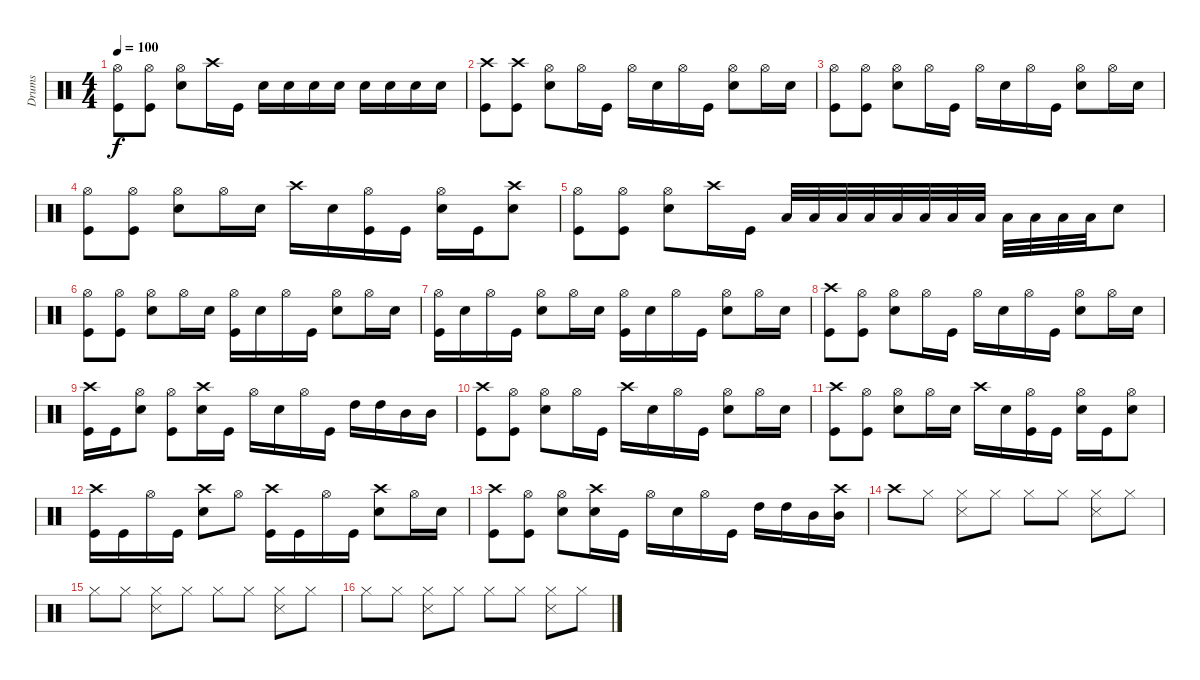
\track ("Drums" "Drums") {instrument percussion}
\staff {score}
\articulation defaults
\ts (4 4)
\tempo 100
\clef neutral
\ks c
("Hi-Hat (open)" "Kick (hit)").8{dy f} ("Hi-Hat (open)" "Kick (hit)").8 ("Hi-Hat (open)" "Snare (hit) 2").8 "Crash high (hit)".16 "Kick (hit)".16 "Snare (hit) 2".16 "Snare (hit) 2".16 "Snare (hit) 2".16 "Snare (hit) 2".16 "Snare (hit) 2".16 "Snare (hit) 2".16 "Snare (hit) 2".16 "Snare (hit) 2".16 |
("Crash high (hit)" "Kick (hit)").8 ("Crash high (hit)" "Kick (hit)").8 ("Hi-Hat (open)" "Snare (hit) 2").8 "Hi-Hat (open)".16 "Kick (hit)".16 "Hi-Hat (open)".16 "Snare (hit) 2".16 "Hi-Hat (open)".16 "Kick (hit)".16 ("Hi-Hat (open)" "Snare (hit) 2").8 "Hi-Hat (open)".16 "Snare (hit) 2".16 |
("Hi-Hat (open)" "Kick (hit)").8 ("Hi-Hat (open)" "Kick (hit)").8 ("Hi-Hat (open)" "Snare (hit) 2").8 "Hi-Hat (open)".16 "Kick (hit)".16 "Hi-Hat (open)".16 "Snare (hit) 2".16 "Hi-Hat (open)".16 "Kick (hit)".16 ("Hi-Hat (open)" "Snare (hit) 2").8 "Hi-Hat (open)".16 "Snare (hit) 2".16 |
("Hi-Hat (open)" "Kick (hit)").8 ("Hi-Hat (open)" "Kick (hit)").8 ("Hi-Hat (open)" "Snare (hit) 2").8 "Hi-Hat (open)".16 "Snare (hit) 2".16 "Crash high (hit)".16 "Snare (hit) 2".16 ("Hi-Hat (open)" "Kick (hit)").16 "Kick (hit)".16 ("Hi-Hat (open)" "Snare (hit) 2").16 "Kick (hit)".16 ("Crash high (hit)" "Snare (hit) 2").8 |
("Hi-Hat (open)" "Kick (hit)").8 ("Hi-Hat (open)" "Kick (hit)").8 ("Hi-Hat (open)" "Snare (hit) 2").8 "Crash high (hit)".16 "Kick (hit)".16 "Low Floor Tom (hit)".32 "Low Floor Tom (hit)".32 "Low Floor Tom (hit)".32 "Low Floor Tom (hit)".32 "Low Floor Tom (hit)".32 "Low Floor Tom (hit)".32 "Low Floor Tom (hit)".32 "Low Floor Tom (hit)".32 "Low Floor Tom (hit)".32 "Low Floor Tom (hit)".32 "Low Floor Tom (hit)".32 "Low Floor Tom (hit)".32 "Snare (hit) 2".8 |
("Hi-Hat (open)" "Kick (hit)").8 ("Hi-Hat (open)" "Kick (hit)").8 ("Hi-Hat (open)" "Snare (hit) 2").8 "Hi-Hat (open)".16 "Snare (hit) 2".16 ("Hi-Hat (open)" "Kick (hit)").16 "Snare (hit) 2".16 "Hi-Hat (open)".16 "Kick (hit)".16 ("Hi-Hat (open)" "Snare (hit) 2").8 "Hi-Hat (open)".16 "Snare (hit) 2".16 |
("Hi-Hat (open)" "Kick (hit)").16 "Snare (hit) 2".16 "Hi-Hat (open)".16 "Kick (hit)".16 ("Hi-Hat (open)" "Snare (hit) 2").8 "Hi-Hat (open)".16 "Snare (hit) 2".16 ("Hi-Hat (open)" "Kick (hit)").16 "Snare (hit) 2".16 "Hi-Hat (open)".16 "Kick (hit)".16 ("Hi-Hat (open)" "Snare (hit) 2").8 "Hi-Hat (open)".16 "Snare (hit) 2".16 |
("Crash high (hit)" "Kick (hit)").8 ("Hi-Hat (open)" "Kick (hit)").8 ("Hi-Hat (open)" "Snare (hit) 2").8 "Hi-Hat (open)".16 "Kick (hit)".16 "Hi-Hat (open)".16 "Snare (hit) 2".16 "Hi-Hat (open)".16 "Kick (hit)".16 ("Hi-Hat (open)" "Snare (hit) 2").8 "Hi-Hat (open)".16 "Snare (hit) 2".16 |
("Crash high (hit)" "Kick (hit)").16 "Kick (hit)".16 ("Hi-Hat (open)" "Snare (hit) 2").8 ("Hi-Hat (open)" "Kick (hit)").8 ("Crash high (hit)" "Snare (hit) 2").16 "Kick (hit)".16 "Hi-Hat (open)".16 "Snare (hit) 2".16 "Hi-Hat (open)".16 "Kick (hit)".16 "High Tom (hit)".16 "High Tom (hit)".16 "Mid Tom (hit)".16 "Mid Tom (hit)".16 |
("Crash high (hit)" "Kick (hit)").8 ("Hi-Hat (open)" "Kick (hit)").8 ("Hi-Hat (open)" "Snare (hit) 2").8 "Hi-Hat (open)".16 "Kick (hit)".16 "Crash high (hit)".16 "Snare (hit) 2".16 "Hi-Hat (open)".16 "Kick (hit)".16 ("Hi-Hat (open)" "Snare (hit) 2").8 "Hi-Hat (open)".16 "Snare (hit) 2".16 |
("Crash high (hit)" "Kick (hit)").8 ("Hi-Hat (open)" "Kick (hit)").8 ("Hi-Hat (open)" "Snare (hit) 2").8 "Hi-Hat (open)".16 "Snare (hit) 2".16 "Crash high (hit)".16 "Snare (hit) 2".16 ("Hi-Hat (open)" "Kick (hit)").16 "Kick (hit)".16 ("Hi-Hat (open)" "Snare (hit) 2").16 "Kick (hit)".16 ("Hi-Hat (open)" "Snare (hit) 2").8 |
("Crash high (hit)" "Kick (hit)").16 "Kick (hit)".16 "Hi-Hat (open)".16 "Kick (hit)".16 ("Crash high (hit)" "Snare (hit) 2").8 "Hi-Hat (open)".8 ("Crash high (hit)" "Kick (hit)").16 "Kick (hit)".16 "Hi-Hat (open)".16 "Kick (hit)".16 ("Crash high (hit)" "Snare (hit) 2").8 "Hi-Hat (open)".16 "Snare (hit) 2".16 |
("Crash high (hit)" "Kick (hit)").8 ("Hi-Hat (open)" "Kick (hit)").8 ("Hi-Hat (open)" "Snare (hit) 2").8 ("Crash high (hit)" "Snare (hit) 2").16 "Kick (hit)".16 "Hi-Hat (open)".16 "Snare (hit) 2".16 "Hi-Hat (open)".16 "Kick (hit)".16 "High Tom (hit)".16 "High Tom (hit)".16 "Mid Tom (hit)".16 ("Crash high (hit)" "Mid Tom (hit)").16 |
"Crash high (hit)".8 "Hi-Hat (closed)".8 ("Hi-Hat (closed)" "Snare (side stick) 3").8 "Hi-Hat (closed)".8 "Hi-Hat (closed)".8 "Hi-Hat (closed)".8 ("Hi-Hat (closed)" "Snare (side stick) 3").8 "Hi-Hat (closed)".8 |
"Hi-Hat (closed)".8 "Hi-Hat (closed)".8 ("Hi-Hat (closed)" "Snare (side stick) 3").8 "Hi-Hat (closed)".8 "Hi-Hat (closed)".8 "Hi-Hat (closed)".8 ("Hi-Hat (closed)" "Snare (side stick) 3").8 "Hi-Hat (closed)".8 |
"Hi-Hat (closed)".8 "Hi-Hat (closed)".8 ("Hi-Hat (closed)" "Snare (side stick) 3").8 "Hi-Hat (closed)".8 "Hi-Hat (closed)".8 "Hi-Hat (closed)".8 ("Hi-Hat (closed)" "Snare (side stick) 3").8 "Hi-Hat (closed)".8
